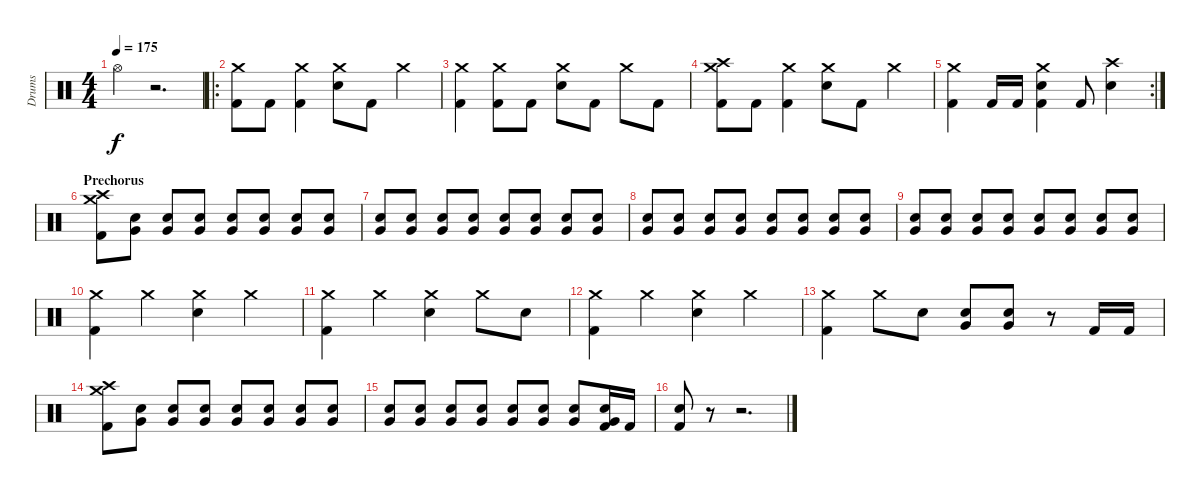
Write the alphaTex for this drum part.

\track ("Drums" "Drums") {instrument percussion}
\staff {score}
\articulation defaults
\ts (4 4)
\tempo 175
\clef neutral
\ks c "Hi-Hat (open)".4{dy f volume 13}
r.2{d} |
\ro
("Crash medium (hit)" "Kick (hit) 2").8 "Kick (hit) 2".8 ("Crash medium (hit)" "Kick (hit) 2").4 ("Crash medium (hit)" "Snare (hit) 2").8 "Kick (hit) 2".8 "Crash medium (hit)".4 |
("Crash medium (hit)" "Kick (hit) 2").4 ("Crash medium (hit)" "Kick (hit) 2").8 "Kick (hit) 2".8 ("Crash medium (hit)" "Snare (hit) 2").8 "Kick (hit) 2".8 "Crash medium (hit)".8 "Kick (hit) 2".8 |
("Crash medium (hit)" "Crash high (hit)" "Kick (hit) 2").8 "Kick (hit) 2".8 ("Crash medium (hit)" "Kick (hit) 2").4 ("Crash medium (hit)" "Snare (hit) 2").8 "Kick (hit) 2".8 "Crash medium (hit)".4 |
\rc 2
("Crash medium (hit)" "Kick (hit) 2").4 "Kick (hit) 2".16 "Kick (hit) 2".16 ("Crash medium (hit)" "Snare (hit) 2" "Kick (hit) 2").4 "Kick (hit) 2".8 ("Crash high (hit)" "Snare (hit) 2").4 |
\section ("" "Prechorus")
("Crash high (hit)" "Crash medium (hit)" "Kick (hit) 2").8{volume 13} ("Very Low Tom (hit)" "Snare (hit) 2").8{volume 5} ("Very Low Tom (hit)" "Snare (hit) 2").8{volume 13} ("Very Low Tom (hit)" "Snare (hit) 2").8 ("Very Low Tom (hit)" "Snare (hit) 2").8 ("Very Low Tom (hit)" "Snare (hit) 2").8 ("Very Low Tom (hit)" "Snare (hit) 2").8 ("Very Low Tom (hit)" "Snare (hit) 2").8 |
("Very Low Tom (hit)" "Snare (hit) 2").8 ("Very Low Tom (hit)" "Snare (hit) 2").8 ("Very Low Tom (hit)" "Snare (hit) 2").8 ("Very Low Tom (hit)" "Snare (hit) 2").8 ("Very Low Tom (hit)" "Snare (hit) 2").8 ("Very Low Tom (hit)" "Snare (hit) 2").8 ("Very Low Tom (hit)" "Snare (hit) 2").8 ("Very Low Tom (hit)" "Snare (hit) 2").8 |
("Very Low Tom (hit)" "Snare (hit) 2").8 ("Very Low Tom (hit)" "Snare (hit) 2").8 ("Very Low Tom (hit)" "Snare (hit) 2").8 ("Very Low Tom (hit)" "Snare (hit) 2").8 ("Very Low Tom (hit)" "Snare (hit) 2").8 ("Very Low Tom (hit)" "Snare (hit) 2").8 ("Very Low Tom (hit)" "Snare (hit) 2").8 ("Very Low Tom (hit)" "Snare (hit) 2").8 |
("Very Low Tom (hit)" "Snare (hit) 2").8 ("Very Low Tom (hit)" "Snare (hit) 2").8 ("Very Low Tom (hit)" "Snare (hit) 2").8 ("Very Low Tom (hit)" "Snare (hit) 2").8 ("Very Low Tom (hit)" "Snare (hit) 2").8 ("Very Low Tom (hit)" "Snare (hit) 2").8 ("Very Low Tom (hit)" "Snare (hit) 2").8 ("Very Low Tom (hit)" "Snare (hit) 2").8 |
("Crash medium (hit)" "Kick (hit) 2").4 "Crash medium (hit)".4 ("Crash medium (hit)" "Snare (hit) 2").4 "Crash medium (hit)".4 |
("Crash medium (hit)" "Kick (hit) 2").4 "Crash medium (hit)".4 ("Crash medium (hit)" "Snare (hit) 2").4 "Crash medium (hit)".8 "Snare (hit) 2".8 |
("Crash medium (hit)" "Kick (hit) 2").4 "Crash medium (hit)".4 ("Crash medium (hit)" "Snare (hit) 2").4 "Crash medium (hit)".4 |
("Crash medium (hit)" "Kick (hit) 2").4 "Crash medium (hit)".8 "Snare (hit) 2".8 ("Very Low Tom (hit)" "Snare (hit) 2").8 ("Very Low Tom (hit)" "Snare (hit) 2").8 r.8 "Kick (hit) 2".16 "Kick (hit) 2".16 |
("Crash high (hit)" "Crash medium (hit)" "Kick (hit) 2").8{volume 13} ("Very Low Tom (hit)" "Snare (hit) 2").8{volume 5} ("Very Low Tom (hit)" "Snare (hit) 2").8{volume 13} ("Very Low Tom (hit)" "Snare (hit) 2").8 ("Very Low Tom (hit)" "Snare (hit) 2").8 ("Very Low Tom (hit)" "Snare (hit) 2").8 ("Very Low Tom (hit)" "Snare (hit) 2").8 ("Very Low Tom (hit)" "Snare (hit) 2").8 |
("Very Low Tom (hit)" "Snare (hit) 2").8 ("Very Low Tom (hit)" "Snare (hit) 2").8 ("Very Low Tom (hit)" "Snare (hit) 2").8 ("Very Low Tom (hit)" "Snare (hit) 2").8 ("Very Low Tom (hit)" "Snare (hit) 2").8 ("Very Low Tom (hit)" "Snare (hit) 2").8 ("Very Low Tom (hit)" "Snare (hit) 2").8 ("Very Low Tom (hit)" "Snare (hit) 2" "Kick (hit) 2").16 "Kick (hit) 2".16 |
("Snare (hit) 2" "Kick (hit) 2").8 r.8 r.2{d}
